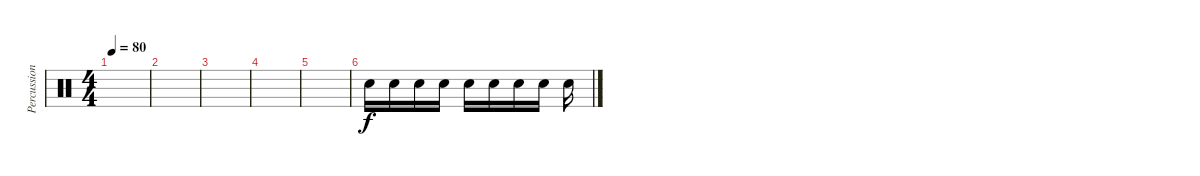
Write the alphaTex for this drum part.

\track ("Percussion" "Percussion") {instrument percussion}
\staff {score}
\articulation defaults
\ts (4 4)
\tempo 80
\clef neutral
\ks c
|
|
|
|
|
"Snare (hit) 2".16 "Snare (hit) 2".16 "Snare (hit) 2".16 "Snare (hit) 2".16 "Snare (hit) 2".16 "Snare (hit) 2".16 "Snare (hit) 2".16 "Snare (hit) 2".16 "Snare (hit) 2".16
